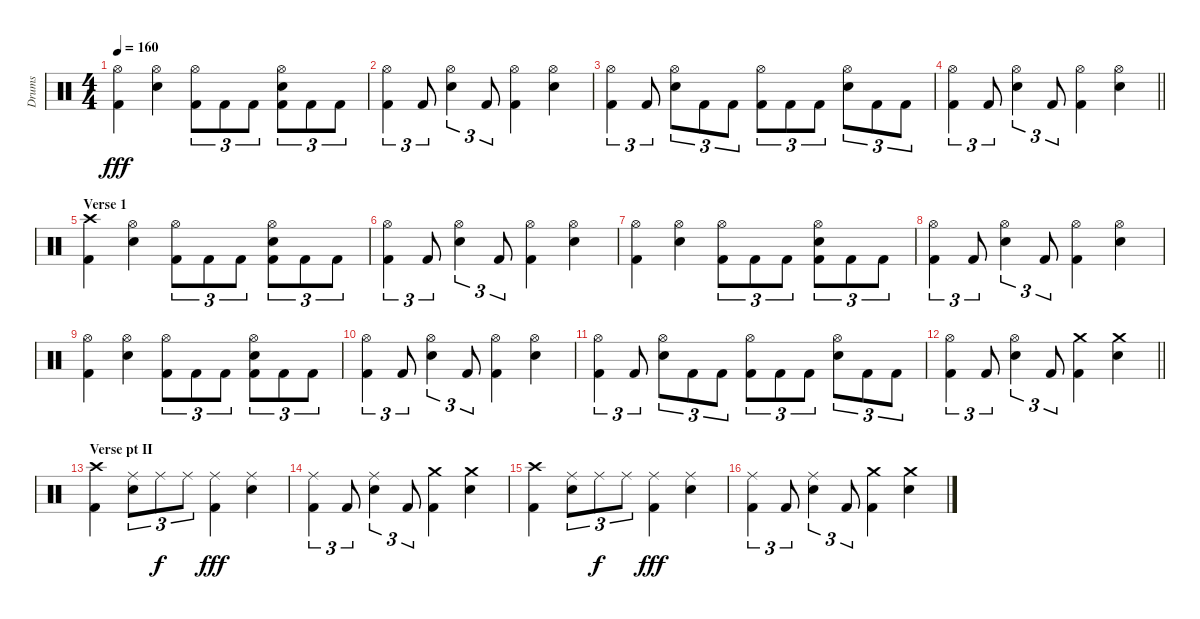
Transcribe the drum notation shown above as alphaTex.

\track ("Drums" "Drums") {instrument percussion}
\staff {score}
\articulation defaults
\ts (4 4)
\tempo 160
\clef neutral
\ks c
("Hi-Hat (open)" "Kick (hit) 2").4{dy fff} ("Hi-Hat (open)" "Snare (hit) 2").4 ("Hi-Hat (open)" "Kick (hit) 2").8{tu (3 2)} "Kick (hit) 2".8{tu (3 2)} "Kick (hit) 2".8{tu (3 2)} ("Hi-Hat (open)" "Snare (hit) 2" "Kick (hit) 2").8{tu (3 2)} "Kick (hit) 2".8{tu (3 2)} "Kick (hit) 2".8{tu (3 2)} |
("Hi-Hat (open)" "Kick (hit) 2").4{tu (3 2)} "Kick (hit) 2".8{tu (3 2)} ("Hi-Hat (open)" "Snare (hit) 2").4{tu (3 2)} "Kick (hit) 2".8{tu (3 2)} ("Hi-Hat (open)" "Kick (hit) 2").4 ("Hi-Hat (open)" "Snare (hit) 2").4 |
("Hi-Hat (open)" "Kick (hit) 2").4{tu (3 2)} "Kick (hit) 2".8{tu (3 2)} ("Hi-Hat (open)" "Snare (hit) 2").8{tu (3 2)} "Kick (hit) 2".8{tu (3 2)} "Kick (hit) 2".8{tu (3 2)} ("Hi-Hat (open)" "Kick (hit) 2").8{tu (3 2)} "Kick (hit) 2".8{tu (3 2)} "Kick (hit) 2".8{tu (3 2)} ("Hi-Hat (open)" "Snare (hit) 2").8{tu (3 2)} "Kick (hit) 2".8{tu (3 2)} "Kick (hit) 2".8{tu (3 2)} |
\barLineRight lightlight
("Hi-Hat (open)" "Kick (hit) 2").4{tu (3 2)} "Kick (hit) 2".8{tu (3 2)} ("Hi-Hat (open)" "Snare (hit) 2").4{tu (3 2)} "Kick (hit) 2".8{tu (3 2)} ("Hi-Hat (open)" "Kick (hit) 2").4 ("Hi-Hat (open)" "Snare (hit) 2").4 |
\section ("" "Verse 1")
("Crash high (hit)" "Kick (hit) 2").4 ("Hi-Hat (open)" "Snare (hit) 2").4 ("Hi-Hat (open)" "Kick (hit) 2").8{tu (3 2)} "Kick (hit) 2".8{tu (3 2)} "Kick (hit) 2".8{tu (3 2)} ("Hi-Hat (open)" "Snare (hit) 2" "Kick (hit) 2").8{tu (3 2)} "Kick (hit) 2".8{tu (3 2)} "Kick (hit) 2".8{tu (3 2)} |
("Hi-Hat (open)" "Kick (hit) 2").4{tu (3 2)} "Kick (hit) 2".8{tu (3 2)} ("Hi-Hat (open)" "Snare (hit) 2").4{tu (3 2)} "Kick (hit) 2".8{tu (3 2)} ("Hi-Hat (open)" "Kick (hit) 2").4 ("Hi-Hat (open)" "Snare (hit) 2").4 |
("Hi-Hat (open)" "Kick (hit) 2").4 ("Hi-Hat (open)" "Snare (hit) 2").4 ("Hi-Hat (open)" "Kick (hit) 2").8{tu (3 2)} "Kick (hit) 2".8{tu (3 2)} "Kick (hit) 2".8{tu (3 2)} ("Hi-Hat (open)" "Snare (hit) 2" "Kick (hit) 2").8{tu (3 2)} "Kick (hit) 2".8{tu (3 2)} "Kick (hit) 2".8{tu (3 2)} |
("Hi-Hat (open)" "Kick (hit) 2").4{tu (3 2)} "Kick (hit) 2".8{tu (3 2)} ("Hi-Hat (open)" "Snare (hit) 2").4{tu (3 2)} "Kick (hit) 2".8{tu (3 2)} ("Hi-Hat (open)" "Kick (hit) 2").4 ("Hi-Hat (open)" "Snare (hit) 2").4 |
("Hi-Hat (open)" "Kick (hit) 2").4 ("Hi-Hat (open)" "Snare (hit) 2").4 ("Hi-Hat (open)" "Kick (hit) 2").8{tu (3 2)} "Kick (hit) 2".8{tu (3 2)} "Kick (hit) 2".8{tu (3 2)} ("Hi-Hat (open)" "Snare (hit) 2" "Kick (hit) 2").8{tu (3 2)} "Kick (hit) 2".8{tu (3 2)} "Kick (hit) 2".8{tu (3 2)} |
("Hi-Hat (open)" "Kick (hit) 2").4{tu (3 2)} "Kick (hit) 2".8{tu (3 2)} ("Hi-Hat (open)" "Snare (hit) 2").4{tu (3 2)} "Kick (hit) 2".8{tu (3 2)} ("Hi-Hat (open)" "Kick (hit) 2").4 ("Hi-Hat (open)" "Snare (hit) 2").4 |
("Hi-Hat (open)" "Kick (hit) 2").4{tu (3 2)} "Kick (hit) 2".8{tu (3 2)} ("Hi-Hat (open)" "Snare (hit) 2").8{tu (3 2)} "Kick (hit) 2".8{tu (3 2)} "Kick (hit) 2".8{tu (3 2)} ("Hi-Hat (open)" "Kick (hit) 2").8{tu (3 2)} "Kick (hit) 2".8{tu (3 2)} "Kick (hit) 2".8{tu (3 2)} ("Hi-Hat (open)" "Snare (hit) 2").8{tu (3 2)} "Kick (hit) 2".8{tu (3 2)} "Kick (hit) 2".8{tu (3 2)} |
\barLineRight lightlight
("Hi-Hat (open)" "Kick (hit) 2").4{tu (3 2)} "Kick (hit) 2".8{tu (3 2)} ("Hi-Hat (open)" "Snare (hit) 2").4{tu (3 2)} "Kick (hit) 2".8{tu (3 2)} ("Crash medium (hit)" "Kick (hit) 2").4 ("Crash medium (hit)" "Snare (hit) 2").4 |
\section ("" "Verse pt II")
("Crash high (hit)" "Kick (hit) 2").4 ("Ride (middle)" "Snare (hit) 2").8{tu (3 2)} "Ride (middle)".8{tu (3 2) dy f} "Ride (middle)".8{tu (3 2)} ("Ride (middle)" "Kick (hit) 2").4{dy fff} ("Ride (middle)" "Snare (hit) 2").4 |
("Ride (middle)" "Kick (hit) 2").4{tu (3 2)} "Kick (hit) 2".8{tu (3 2)} ("Ride (middle)" "Snare (hit) 2").4{tu (3 2)} "Kick (hit) 2".8{tu (3 2)} ("Crash medium (hit)" "Kick (hit) 2").4 ("Crash medium (hit)" "Snare (hit) 2").4 |
("Crash high (hit)" "Kick (hit) 2").4 ("Ride (middle)" "Snare (hit) 2").8{tu (3 2)} "Ride (middle)".8{tu (3 2) dy f} "Ride (middle)".8{tu (3 2)} ("Ride (middle)" "Kick (hit) 2").4{dy fff} ("Ride (middle)" "Snare (hit) 2").4 |
("Ride (middle)" "Kick (hit) 2").4{tu (3 2)} "Kick (hit) 2".8{tu (3 2)} ("Ride (middle)" "Snare (hit) 2").4{tu (3 2)} "Kick (hit) 2".8{tu (3 2)} ("Crash medium (hit)" "Kick (hit) 2").4 ("Crash medium (hit)" "Snare (hit) 2").4
